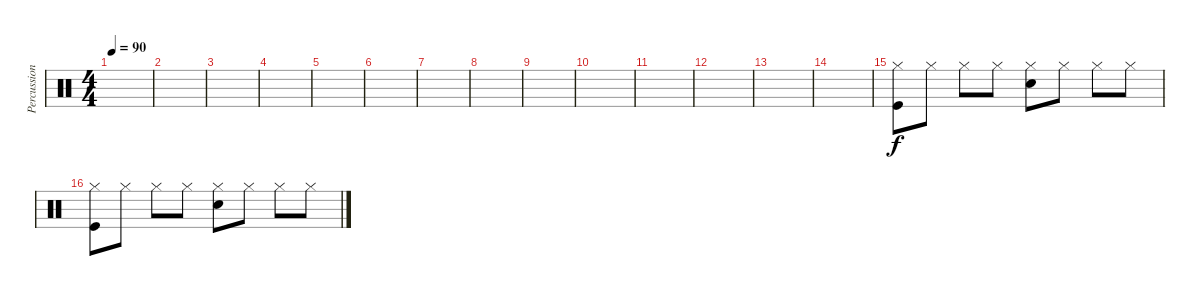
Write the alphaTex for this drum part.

\track ("Percussioni" "Percussion") {instrument percussion}
\staff {score}
\articulation defaults
\ts (4 4)
\tempo 90
\clef neutral
\ks c
|
|
|
|
|
|
|
|
|
|
|
|
|
|
("Hi-Hat (closed)" "Kick (hit)").8 "Hi-Hat (closed)".8 "Hi-Hat (closed)".8 "Hi-Hat (closed)".8 ("Hi-Hat (closed)" "Snare (hit) 2").8 "Hi-Hat (closed)".8 "Hi-Hat (closed)".8 "Hi-Hat (closed)".8 |
("Hi-Hat (closed)" "Kick (hit)").8 "Hi-Hat (closed)".8 "Hi-Hat (closed)".8 "Hi-Hat (closed)".8 ("Hi-Hat (closed)" "Snare (hit) 2").8 "Hi-Hat (closed)".8 "Hi-Hat (closed)".8 "Hi-Hat (closed)".8
